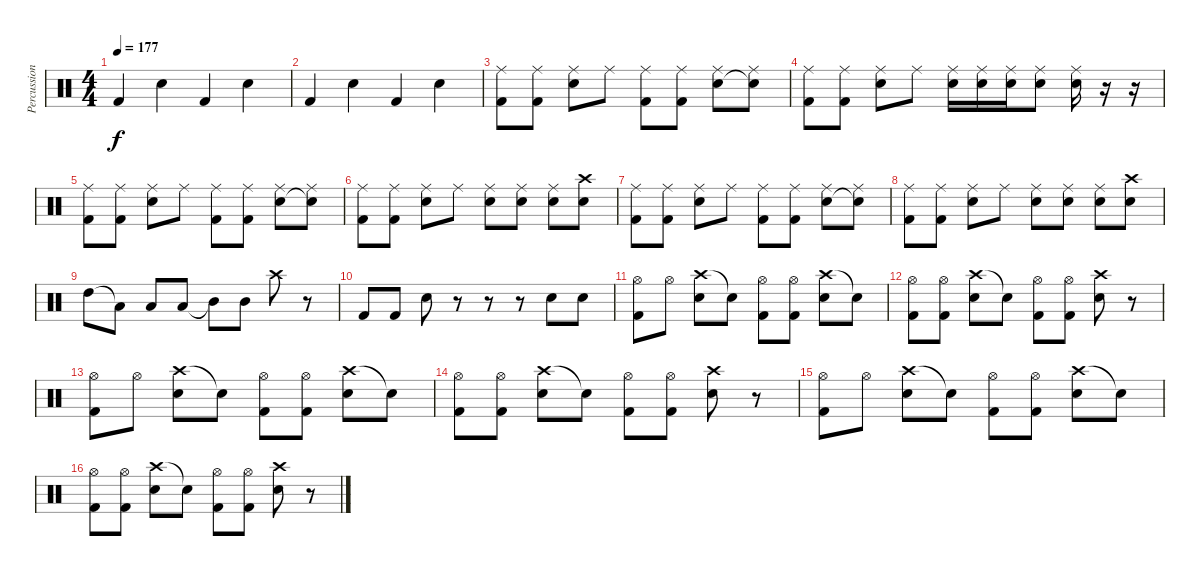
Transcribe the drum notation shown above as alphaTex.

\track ("Percussion" "Percussion") {instrument percussion}
\staff {score}
\articulation defaults
\ts (4 4)
\tempo 177
\clef neutral
\ks c "Kick (hit) 2".4{dy f} "Electric Snare (hit)".4 "Kick (hit) 2".4 "Electric Snare (hit)".4
|
"Kick (hit) 2".4 "Electric Snare (hit)".4 "Kick (hit) 2".4 "Electric Snare (hit)".4 |
("Ride (middle)" "Kick (hit) 2").8 ("Ride (middle)" "Kick (hit) 2").8 ("Ride (middle)" "Electric Snare (hit)").8 "Ride (middle)".8 ("Ride (middle)" "Kick (hit) 2").8 ("Ride (middle)" "Kick (hit) 2").8 ("Ride (middle)" "Electric Snare (hit)").8 ("Ride (middle)" "Snare (hit)"{t}).8 |
("Ride (middle)" "Kick (hit) 2").8 ("Ride (middle)" "Kick (hit) 2").8 ("Ride (middle)" "Electric Snare (hit)").8 "Ride (middle)".8 ("Ride (middle)" "Electric Snare (hit)").16 ("Ride (middle)" "Electric Snare (hit)").16 ("Ride (middle)" "Electric Snare (hit)").16 ("Ride (middle)" "Electric Snare (hit)").8 ("Ride (middle)" "Electric Snare (hit)").16 r.16 r.16 |
("Ride (middle)" "Kick (hit) 2").8 ("Ride (middle)" "Kick (hit) 2").8 ("Ride (middle)" "Electric Snare (hit)").8 "Ride (middle)".8 ("Ride (middle)" "Kick (hit) 2").8 ("Ride (middle)" "Kick (hit) 2").8 ("Ride (middle)" "Electric Snare (hit)").8 ("Ride (middle)" "Snare (hit)"{t}).8 |
("Ride (middle)" "Kick (hit) 2").8 ("Ride (middle)" "Kick (hit) 2").8 ("Ride (middle)" "Electric Snare (hit)").8 "Ride (middle)".8 ("Ride (middle)" "Electric Snare (hit)").8 ("Ride (middle)" "Electric Snare (hit)").8 ("Ride (middle)" "Electric Snare (hit)").8 ("Crash high (hit)" "Electric Snare (hit)").8 |
("Ride (middle)" "Kick (hit) 2").8 ("Ride (middle)" "Kick (hit) 2").8 ("Ride (middle)" "Electric Snare (hit)").8 "Ride (middle)".8 ("Ride (middle)" "Kick (hit) 2").8 ("Ride (middle)" "Kick (hit) 2").8 ("Ride (middle)" "Electric Snare (hit)").8 ("Ride (middle)" "Snare (hit)"{t}).8 |
("Ride (middle)" "Kick (hit) 2").8 ("Ride (middle)" "Kick (hit) 2").8 ("Ride (middle)" "Electric Snare (hit)").8 "Ride (middle)".8 ("Ride (middle)" "Electric Snare (hit)").8 ("Ride (middle)" "Electric Snare (hit)").8 ("Ride (middle)" "Electric Snare (hit)").8 ("Crash high (hit)" "Electric Snare (hit)").8 |
"High Tom (hit)".8 "Low Tom (hit)"{t}.8 "Low Tom (hit)".8 "Low Tom (hit)".8 "Mid Tom (hit)"{t}.8 "Mid Tom (hit)".8 "Crash high (hit)".8 r.8 |
"Kick (hit) 2".8 "Kick (hit) 2".8 "Electric Snare (hit)".8 r.8 r.8 r.8 "Electric Snare (hit)".8 "Electric Snare (hit)".8 |
("Hi-Hat (open)" "Kick (hit) 2").8 "Hi-Hat (open)".8 ("Crash high (hit)" "Electric Snare (hit)").8 "Snare (hit)"{t}.8 ("Hi-Hat (open)" "Kick (hit) 2").8 ("Hi-Hat (open)" "Kick (hit) 2").8 ("Crash high (hit)" "Electric Snare (hit)").8 "Snare (hit)"{t}.8 |
("Hi-Hat (open)" "Kick (hit) 2").8 ("Hi-Hat (open)" "Kick (hit) 2").8 ("Crash high (hit)" "Electric Snare (hit)").8 "Snare (hit)"{t}.8 ("Hi-Hat (open)" "Kick (hit) 2").8 ("Hi-Hat (open)" "Kick (hit) 2").8 ("Crash high (hit)" "Electric Snare (hit)").8 r.8 |
("Hi-Hat (open)" "Kick (hit) 2").8 "Hi-Hat (open)".8 ("Crash high (hit)" "Electric Snare (hit)").8 "Snare (hit)"{t}.8 ("Hi-Hat (open)" "Kick (hit) 2").8 ("Hi-Hat (open)" "Kick (hit) 2").8 ("Crash high (hit)" "Electric Snare (hit)").8 "Snare (hit)"{t}.8 |
("Hi-Hat (open)" "Kick (hit) 2").8 ("Hi-Hat (open)" "Kick (hit) 2").8 ("Crash high (hit)" "Electric Snare (hit)").8 "Snare (hit)"{t}.8 ("Hi-Hat (open)" "Kick (hit) 2").8 ("Hi-Hat (open)" "Kick (hit) 2").8 ("Crash high (hit)" "Electric Snare (hit)").8 r.8 |
("Hi-Hat (open)" "Kick (hit) 2").8 "Hi-Hat (open)".8 ("Crash high (hit)" "Electric Snare (hit)").8 "Snare (hit)"{t}.8 ("Hi-Hat (open)" "Kick (hit) 2").8 ("Hi-Hat (open)" "Kick (hit) 2").8 ("Crash high (hit)" "Electric Snare (hit)").8 "Snare (hit)"{t}.8 |
("Hi-Hat (open)" "Kick (hit) 2").8 ("Hi-Hat (open)" "Kick (hit) 2").8 ("Crash high (hit)" "Electric Snare (hit)").8 "Snare (hit)"{t}.8 ("Hi-Hat (open)" "Kick (hit) 2").8 ("Hi-Hat (open)" "Kick (hit) 2").8 ("Crash high (hit)" "Electric Snare (hit)").8 r.8
